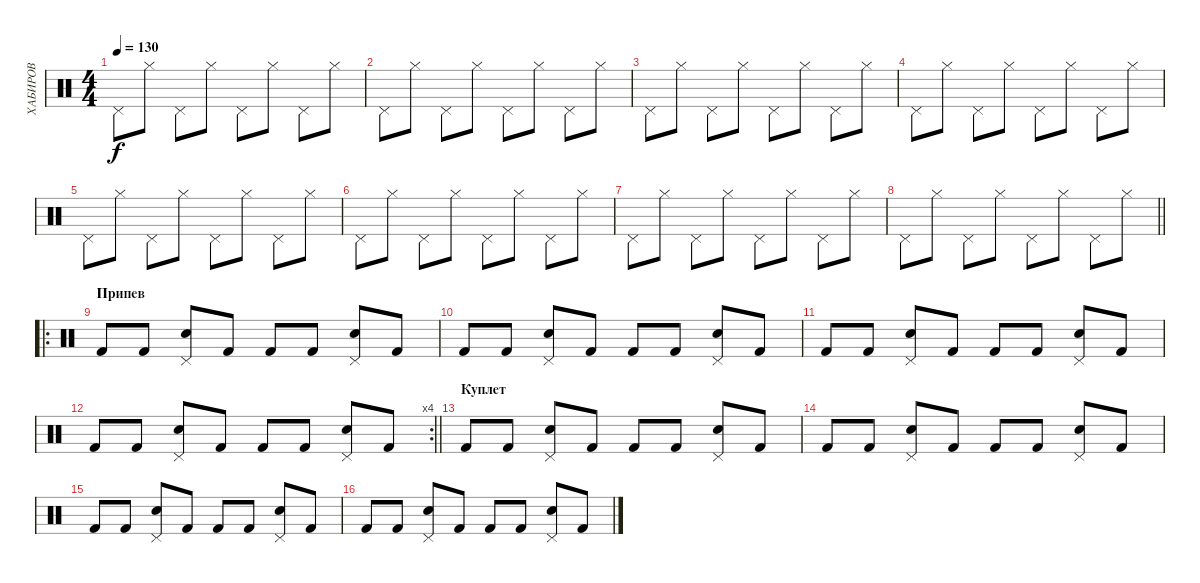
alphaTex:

\track ("ХАБИРОВ" "ХАБИРОВ") {instrument percussion}
\staff {score}
\articulation defaults
\ts (4 4)
\tempo 130
\clef neutral
\ks c "Pedal Hi-Hat (hit)".8{dy f} "Hi-Hat (closed)".8 "Pedal Hi-Hat (hit)".8 "Hi-Hat (closed)".8 "Pedal Hi-Hat (hit)".8 "Hi-Hat (closed)".8 "Pedal Hi-Hat (hit)".8 "Hi-Hat (closed)".8
|
"Pedal Hi-Hat (hit)".8 "Hi-Hat (closed)".8 "Pedal Hi-Hat (hit)".8 "Hi-Hat (closed)".8 "Pedal Hi-Hat (hit)".8 "Hi-Hat (closed)".8 "Pedal Hi-Hat (hit)".8 "Hi-Hat (closed)".8 |
"Pedal Hi-Hat (hit)".8 "Hi-Hat (closed)".8 "Pedal Hi-Hat (hit)".8 "Hi-Hat (closed)".8 "Pedal Hi-Hat (hit)".8 "Hi-Hat (closed)".8 "Pedal Hi-Hat (hit)".8 "Hi-Hat (closed)".8 |
"Pedal Hi-Hat (hit)".8 "Hi-Hat (closed)".8 "Pedal Hi-Hat (hit)".8 "Hi-Hat (closed)".8 "Pedal Hi-Hat (hit)".8 "Hi-Hat (closed)".8 "Pedal Hi-Hat (hit)".8 "Hi-Hat (closed)".8 |
"Pedal Hi-Hat (hit)".8 "Hi-Hat (closed)".8 "Pedal Hi-Hat (hit)".8 "Hi-Hat (closed)".8 "Pedal Hi-Hat (hit)".8 "Hi-Hat (closed)".8 "Pedal Hi-Hat (hit)".8 "Hi-Hat (closed)".8 |
"Pedal Hi-Hat (hit)".8 "Hi-Hat (closed)".8 "Pedal Hi-Hat (hit)".8 "Hi-Hat (closed)".8 "Pedal Hi-Hat (hit)".8 "Hi-Hat (closed)".8 "Pedal Hi-Hat (hit)".8 "Hi-Hat (closed)".8 |
"Pedal Hi-Hat (hit)".8 "Hi-Hat (closed)".8 "Pedal Hi-Hat (hit)".8 "Hi-Hat (closed)".8 "Pedal Hi-Hat (hit)".8 "Hi-Hat (closed)".8 "Pedal Hi-Hat (hit)".8 "Hi-Hat (closed)".8 |
\barLineRight lightlight "Pedal Hi-Hat (hit)".8 "Hi-Hat (closed)".8 "Pedal Hi-Hat (hit)".8 "Hi-Hat (closed)".8 "Pedal Hi-Hat (hit)".8 "Hi-Hat (closed)".8 "Pedal Hi-Hat (hit)".8 "Hi-Hat (closed)".8
|
\ro
\section ("" "Припев")
"Kick (hit) 2".8 "Kick (hit) 2".8 ("Snare (hit) 2" "Pedal Hi-Hat (hit)").8 "Kick (hit) 2".8 "Kick (hit) 2".8 "Kick (hit) 2".8 ("Snare (hit) 2" "Pedal Hi-Hat (hit)").8 "Kick (hit) 2".8 |
"Kick (hit) 2".8 "Kick (hit) 2".8 ("Snare (hit) 2" "Pedal Hi-Hat (hit)").8 "Kick (hit) 2".8 "Kick (hit) 2".8 "Kick (hit) 2".8 ("Snare (hit) 2" "Pedal Hi-Hat (hit)").8 "Kick (hit) 2".8 |
"Kick (hit) 2".8 "Kick (hit) 2".8 ("Snare (hit) 2" "Pedal Hi-Hat (hit)").8 "Kick (hit) 2".8 "Kick (hit) 2".8 "Kick (hit) 2".8 ("Snare (hit) 2" "Pedal Hi-Hat (hit)").8 "Kick (hit) 2".8 |
\rc 4
\barLineRight lightlight "Kick (hit) 2".8 "Kick (hit) 2".8
("Snare (hit) 2" "Pedal Hi-Hat (hit)").8 "Kick (hit) 2".8 "Kick (hit) 2".8 "Kick (hit) 2".8 ("Snare (hit) 2" "Pedal Hi-Hat (hit)").8 "Kick (hit) 2".8 |
\section ("" "Куплет")
"Kick (hit) 2".8 "Kick (hit) 2".8 ("Snare (hit) 2" "Pedal Hi-Hat (hit)").8 "Kick (hit) 2".8 "Kick (hit) 2".8 "Kick (hit) 2".8 ("Snare (hit) 2" "Pedal Hi-Hat (hit)").8 "Kick (hit) 2".8 |
"Kick (hit) 2".8 "Kick (hit) 2".8 ("Snare (hit) 2" "Pedal Hi-Hat (hit)").8 "Kick (hit) 2".8 "Kick (hit) 2".8 "Kick (hit) 2".8 ("Snare (hit) 2" "Pedal Hi-Hat (hit)").8 "Kick (hit) 2".8 |
"Kick (hit) 2".8 "Kick (hit) 2".8 ("Snare (hit) 2" "Pedal Hi-Hat (hit)").8 "Kick (hit) 2".8 "Kick (hit) 2".8 "Kick (hit) 2".8 ("Snare (hit) 2" "Pedal Hi-Hat (hit)").8 "Kick (hit) 2".8 |
"Kick (hit) 2".8 "Kick (hit) 2".8 ("Snare (hit) 2" "Pedal Hi-Hat (hit)").8 "Kick (hit) 2".8 "Kick (hit) 2".8 "Kick (hit) 2".8 ("Snare (hit) 2" "Pedal Hi-Hat (hit)").8 "Kick (hit) 2".8
